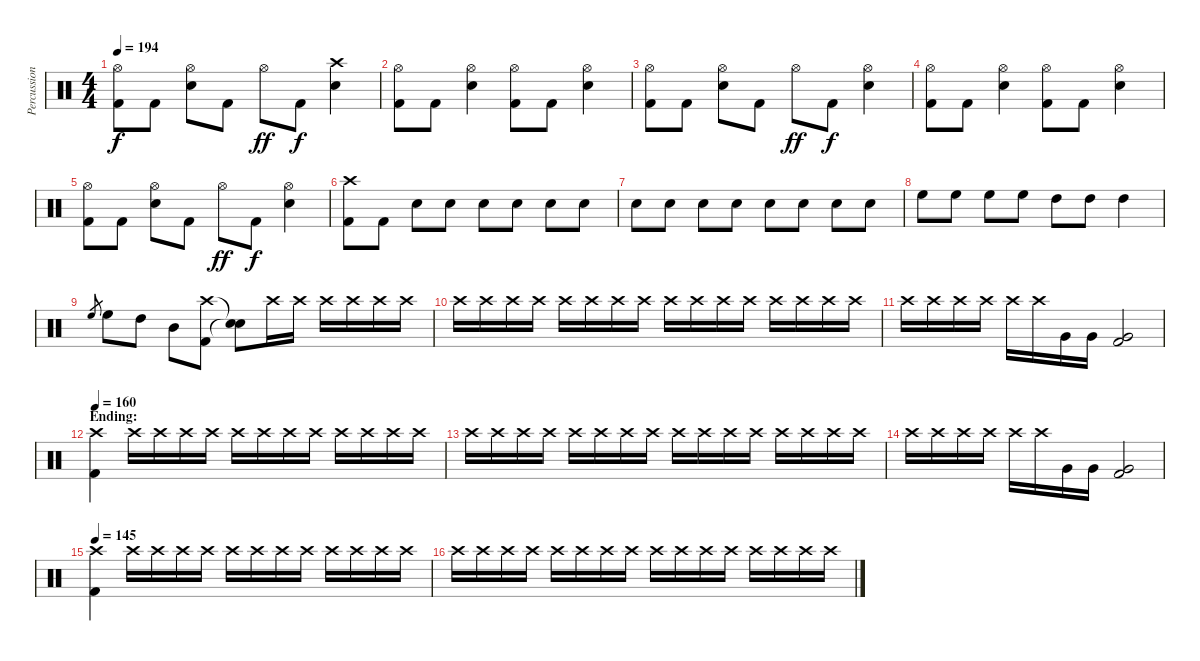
\track ("Percussion" "Percussion") {instrument percussion}
\staff {score}
\articulation defaults
\ts (4 4)
\tempo 194
\clef neutral
\ks c
("Hi-Hat (open)" "Kick (hit) 2").8{dy f} "Kick (hit) 2".8 ("Hi-Hat (open)" "Electric Snare (hit)").8 "Kick (hit) 2".8 "Hi-Hat (open)".8{dy ff} "Kick (hit) 2".8{dy f} ("Crash high (hit)" "Electric Snare (hit)").4 |
("Hi-Hat (open)" "Kick (hit) 2").8 "Kick (hit) 2".8 ("Hi-Hat (open)" "Electric Snare (hit)").4 ("Hi-Hat (open)" "Kick (hit) 2").8 "Kick (hit) 2".8 ("Hi-Hat (open)" "Electric Snare (hit)").4 |
("Hi-Hat (open)" "Kick (hit) 2").8 "Kick (hit) 2".8 ("Hi-Hat (open)" "Electric Snare (hit)").8 "Kick (hit) 2".8 "Hi-Hat (open)".8{dy ff} "Kick (hit) 2".8{dy f} ("Hi-Hat (open)" "Electric Snare (hit)").4 |
("Hi-Hat (open)" "Kick (hit) 2").8 "Kick (hit) 2".8 ("Hi-Hat (open)" "Electric Snare (hit)").4 ("Hi-Hat (open)" "Kick (hit) 2").8 "Kick (hit) 2".8 ("Hi-Hat (open)" "Electric Snare (hit)").4 |
("Hi-Hat (open)" "Kick (hit) 2").8 "Kick (hit) 2".8 ("Hi-Hat (open)" "Electric Snare (hit)").8 "Kick (hit) 2".8 "Hi-Hat (open)".8{dy ff} "Kick (hit) 2".8{dy f} ("Hi-Hat (open)" "Electric Snare (hit)").4 |
("Crash high (hit)" "Kick (hit) 2").8 "Kick (hit) 2".8 "Electric Snare (hit)".8 "Electric Snare (hit)".8 "Electric Snare (hit)".8 "Electric Snare (hit)".8 "Electric Snare (hit)".8 "Electric Snare (hit)".8 |
"Electric Snare (hit)".8 "Electric Snare (hit)".8 "Electric Snare (hit)".8 "Electric Snare (hit)".8 "Electric Snare (hit)".8 "Electric Snare (hit)".8 "Electric Snare (hit)".8 "Electric Snare (hit)".8 |
"High Floor Tom (hit)".8 "High Floor Tom (hit)".8 "High Floor Tom (hit)".8 "High Floor Tom (hit)".8 "High Tom (hit)".8 "High Tom (hit)".8 "High Tom (hit)".4 |
"High Floor Tom (hit)".8{gr} "High Floor Tom (hit)".8 "High Tom (hit)".8 "Mid Tom (hit)".8 ("Crash high (hit)" "Kick (hit) 2").8 ("Snare (hit)"{t} "Snare (hit)"{t}).8 "Crash high (hit)".16 "Crash high (hit)".16 "Crash high (hit)".16 "Crash high (hit)".16 "Crash high (hit)".16 "Crash high (hit)".16 |
"Crash high (hit)".16 "Crash high (hit)".16 "Crash high (hit)".16 "Crash high (hit)".16 "Crash high (hit)".16 "Crash high (hit)".16 "Crash high (hit)".16 "Crash high (hit)".16 "Crash high (hit)".16 "Crash high (hit)".16 "Crash high (hit)".16 "Crash high (hit)".16 "Crash high (hit)".16 "Crash high (hit)".16 "Crash high (hit)".16 "Crash high (hit)".16 |
"Crash high (hit)".16 "Crash high (hit)".16 "Crash high (hit)".16 "Crash high (hit)".16 "Crash high (hit)".16 "Crash high (hit)".16 "Very Low Tom (hit)".16 "Very Low Tom (hit)".16 ("Very Low Tom (hit)" "Kick (hit) 2").2 |
\section ("" "Ending:")
\tempo 160
("Crash high (hit)" "Kick (hit) 2").4 "Crash high (hit)".16 "Crash high (hit)".16 "Crash high (hit)".16 "Crash high (hit)".16 "Crash high (hit)".16 "Crash high (hit)".16 "Crash high (hit)".16 "Crash high (hit)".16 "Crash high (hit)".16 "Crash high (hit)".16 "Crash high (hit)".16 "Crash high (hit)".16 |
"Crash high (hit)".16 "Crash high (hit)".16 "Crash high (hit)".16 "Crash high (hit)".16 "Crash high (hit)".16 "Crash high (hit)".16 "Crash high (hit)".16 "Crash high (hit)".16 "Crash high (hit)".16 "Crash high (hit)".16 "Crash high (hit)".16 "Crash high (hit)".16 "Crash high (hit)".16 "Crash high (hit)".16 "Crash high (hit)".16 "Crash high (hit)".16 |
"Crash high (hit)".16 "Crash high (hit)".16 "Crash high (hit)".16 "Crash high (hit)".16 "Crash high (hit)".16 "Crash high (hit)".16 "Very Low Tom (hit)".16 "Very Low Tom (hit)".16 ("Very Low Tom (hit)" "Kick (hit) 2").2 |
\tempo 145
("Crash high (hit)" "Kick (hit) 2").4 "Crash high (hit)".16 "Crash high (hit)".16 "Crash high (hit)".16 "Crash high (hit)".16 "Crash high (hit)".16 "Crash high (hit)".16 "Crash high (hit)".16 "Crash high (hit)".16 "Crash high (hit)".16 "Crash high (hit)".16 "Crash high (hit)".16 "Crash high (hit)".16 |
"Crash high (hit)".16 "Crash high (hit)".16 "Crash high (hit)".16 "Crash high (hit)".16 "Crash high (hit)".16 "Crash high (hit)".16 "Crash high (hit)".16 "Crash high (hit)".16 "Crash high (hit)".16 "Crash high (hit)".16 "Crash high (hit)".16 "Crash high (hit)".16 "Crash high (hit)".16 "Crash high (hit)".16 "Crash high (hit)".16 "Crash high (hit)".16
